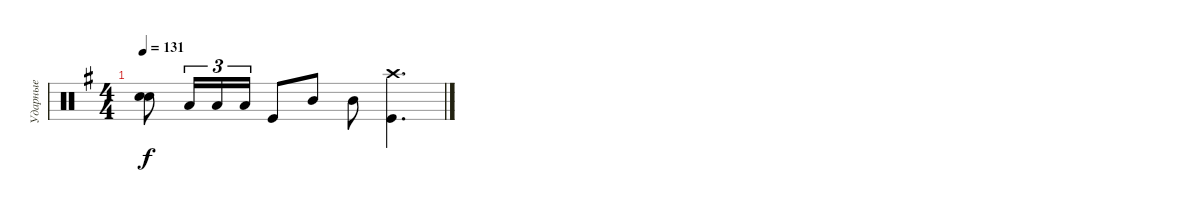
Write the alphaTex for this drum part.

\track ("Ударные" "Ударные") {instrument percussion}
\staff {score}
\articulation defaults
\ts (4 4)
\tempo 131
\clef neutral
\ks eminor
("Snare (hit) 2" "Snare (hit) 2").8{bd 480 dy f} "Low Floor Tom (hit)".16{tu (3 2)} "Low Floor Tom (hit)".16{tu (3 2)} "Low Floor Tom (hit)".16{tu (3 2)} "Kick (hit)".8 "Mid Tom (hit)".8 "Mid Tom (hit)".8 ("Kick (hit)" "Crash high (hit)").4{d}
